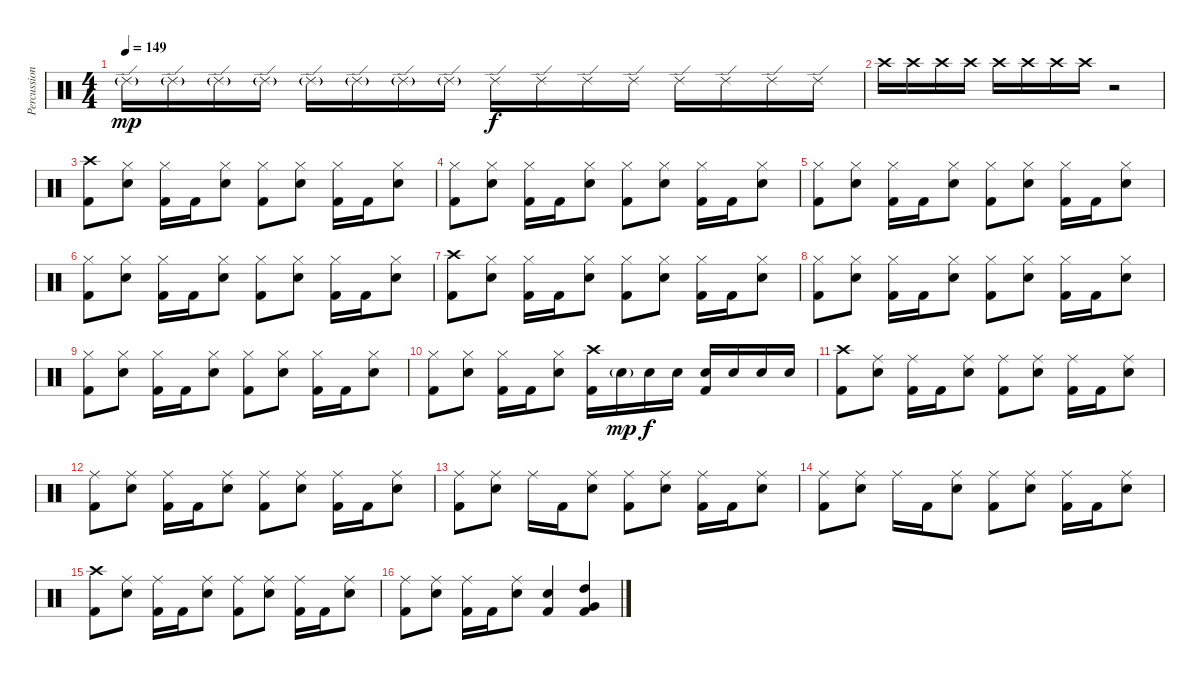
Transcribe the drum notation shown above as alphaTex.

\track ("Percussion" "Percussion") {instrument percussion}
\staff {score}
\articulation defaults
\ts (4 4)
\tempo 149
\clef neutral
\ks c "Ride (edge) 2"{g}.16{dy mp} "Ride (edge) 2"{g}.16 "Ride (edge) 2"{g}.16 "Ride (edge) 2"{g}.16 "Ride (edge) 2"{g}.16 "Ride (edge) 2"{g}.16 "Ride (edge) 2"{g}.16 "Ride (edge) 2"{g}.16 "Ride (edge) 2".16{dy f} "Ride (edge) 2".16 "Ride (edge) 2".16 "Ride (edge) 2".16 "Ride (edge) 2".16 "Ride (edge) 2".16 "Ride (edge) 2".16 "Ride (edge) 2".16
|
"Crash high (hit)".16 "Crash high (hit)".16 "Crash high (hit)".16 "Crash high (hit)".16 "Crash high (hit)".16 "Crash high (hit)".16 "Crash high (hit)".16 "Crash high (hit)".16 r.2 |
("Crash high (hit)" "Kick (hit) 2").8 ("Hi-Hat (closed)" "Snare (hit) 2").8 ("Hi-Hat (closed)" "Kick (hit) 2").16 "Kick (hit) 2".16 ("Hi-Hat (closed)" "Snare (hit) 2").8 ("Hi-Hat (closed)" "Kick (hit) 2").8 ("Hi-Hat (closed)" "Snare (hit) 2").8 ("Hi-Hat (closed)" "Kick (hit) 2").16 "Kick (hit) 2".16 ("Hi-Hat (closed)" "Snare (hit) 2").8 |
("Hi-Hat (closed)" "Kick (hit) 2").8 ("Hi-Hat (closed)" "Snare (hit) 2").8 ("Hi-Hat (closed)" "Kick (hit) 2").16 "Kick (hit) 2".16 ("Hi-Hat (closed)" "Snare (hit) 2").8 ("Hi-Hat (closed)" "Kick (hit) 2").8 ("Hi-Hat (closed)" "Snare (hit) 2").8 ("Hi-Hat (closed)" "Kick (hit) 2").16 "Kick (hit) 2".16 ("Hi-Hat (closed)" "Snare (hit) 2").8 |
("Hi-Hat (closed)" "Kick (hit) 2").8 ("Hi-Hat (closed)" "Snare (hit) 2").8 ("Hi-Hat (closed)" "Kick (hit) 2").16 "Kick (hit) 2".16 ("Hi-Hat (closed)" "Snare (hit) 2").8 ("Hi-Hat (closed)" "Kick (hit) 2").8 ("Hi-Hat (closed)" "Snare (hit) 2").8 ("Hi-Hat (closed)" "Kick (hit) 2").16 "Kick (hit) 2".16 ("Hi-Hat (closed)" "Snare (hit) 2").8 |
("Hi-Hat (closed)" "Kick (hit) 2").8 ("Hi-Hat (closed)" "Snare (hit) 2").8 ("Hi-Hat (closed)" "Kick (hit) 2").16 "Kick (hit) 2".16 ("Hi-Hat (closed)" "Snare (hit) 2").8 ("Hi-Hat (closed)" "Kick (hit) 2").8 ("Hi-Hat (closed)" "Snare (hit) 2").8 ("Hi-Hat (closed)" "Kick (hit) 2").16 "Kick (hit) 2".16 ("Hi-Hat (closed)" "Snare (hit) 2").8 |
("Crash high (hit)" "Kick (hit) 2").8 ("Hi-Hat (closed)" "Snare (hit) 2").8 ("Hi-Hat (closed)" "Kick (hit) 2").16 "Kick (hit) 2".16 ("Hi-Hat (closed)" "Snare (hit) 2").8 ("Hi-Hat (closed)" "Kick (hit) 2").8 ("Hi-Hat (closed)" "Snare (hit) 2").8 ("Hi-Hat (closed)" "Kick (hit) 2").16 "Kick (hit) 2".16 ("Hi-Hat (closed)" "Snare (hit) 2").8 |
("Hi-Hat (closed)" "Kick (hit) 2").8 ("Hi-Hat (closed)" "Snare (hit) 2").8 ("Hi-Hat (closed)" "Kick (hit) 2").16 "Kick (hit) 2".16 ("Hi-Hat (closed)" "Snare (hit) 2").8 ("Hi-Hat (closed)" "Kick (hit) 2").8 ("Hi-Hat (closed)" "Snare (hit) 2").8 ("Hi-Hat (closed)" "Kick (hit) 2").16 "Kick (hit) 2".16 ("Hi-Hat (closed)" "Snare (hit) 2").8 |
("Hi-Hat (closed)" "Kick (hit) 2").8 ("Hi-Hat (closed)" "Snare (hit) 2").8 ("Hi-Hat (closed)" "Kick (hit) 2").16 "Kick (hit) 2".16 ("Hi-Hat (closed)" "Snare (hit) 2").8 ("Hi-Hat (closed)" "Kick (hit) 2").8 ("Hi-Hat (closed)" "Snare (hit) 2").8 ("Hi-Hat (closed)" "Kick (hit) 2").16 "Kick (hit) 2".16 ("Hi-Hat (closed)" "Snare (hit) 2").8 |
("Hi-Hat (closed)" "Kick (hit) 2").8 ("Hi-Hat (closed)" "Snare (hit) 2").8 ("Hi-Hat (closed)" "Kick (hit) 2").16 "Kick (hit) 2".16 ("Hi-Hat (closed)" "Snare (hit) 2").8 ("Crash high (hit)" "Kick (hit) 2").16 "Snare (hit) 2"{g}.16{dy mp} "Snare (hit) 2".16{dy f} "Snare (hit) 2".16 ("Snare (hit) 2" "Kick (hit) 2").16 "Snare (hit) 2".16 "Snare (hit) 2".16 "Snare (hit) 2".16 |
("Crash high (hit)" "Kick (hit) 2").8 ("Ride (middle)" "Snare (hit) 2").8 ("Ride (middle)" "Kick (hit) 2").16 "Kick (hit) 2".16 ("Ride (middle)" "Snare (hit) 2").8 ("Ride (middle)" "Kick (hit) 2").8 ("Ride (middle)" "Snare (hit) 2").8 ("Ride (middle)" "Kick (hit) 2").16 "Kick (hit) 2".16 ("Ride (middle)" "Snare (hit) 2").8 |
("Ride (middle)" "Kick (hit) 2").8 ("Ride (middle)" "Snare (hit) 2").8 ("Ride (middle)" "Kick (hit) 2").16 "Kick (hit) 2".16 ("Ride (middle)" "Snare (hit) 2").8 ("Ride (middle)" "Kick (hit) 2").8 ("Ride (middle)" "Snare (hit) 2").8 ("Ride (middle)" "Kick (hit) 2").16 "Kick (hit) 2".16 ("Ride (middle)" "Snare (hit) 2").8 |
("Ride (middle)" "Kick (hit) 2").8 ("Ride (middle)" "Snare (hit) 2").8 "Ride (middle)".16 "Kick (hit) 2".16 ("Ride (middle)" "Snare (hit) 2").8 ("Ride (middle)" "Kick (hit) 2").8 ("Ride (middle)" "Snare (hit) 2").8 ("Ride (middle)" "Kick (hit) 2").16 "Kick (hit) 2".16 ("Ride (middle)" "Snare (hit) 2").8 |
("Ride (middle)" "Kick (hit) 2").8 ("Ride (middle)" "Snare (hit) 2").8 "Ride (middle)".16 "Kick (hit) 2".16 ("Ride (middle)" "Snare (hit) 2").8 ("Ride (middle)" "Kick (hit) 2").8 ("Ride (middle)" "Snare (hit) 2").8 ("Ride (middle)" "Kick (hit) 2").16 "Kick (hit) 2".16 ("Ride (middle)" "Snare (hit) 2").8 |
("Crash high (hit)" "Kick (hit) 2").8 ("Ride (middle)" "Snare (hit) 2").8 ("Ride (middle)" "Kick (hit) 2").16 "Kick (hit) 2".16 ("Ride (middle)" "Snare (hit) 2").8 ("Ride (middle)" "Kick (hit) 2").8 ("Ride (middle)" "Snare (hit) 2").8 ("Ride (middle)" "Kick (hit) 2").16 "Kick (hit) 2".16 ("Ride (middle)" "Snare (hit) 2").8 |
("Ride (middle)" "Kick (hit) 2").8 ("Ride (middle)" "Snare (hit) 2").8 ("Ride (middle)" "Kick (hit) 2").16 "Kick (hit) 2".16 ("Ride (middle)" "Snare (hit) 2").8 ("Snare (hit) 2" "Kick (hit) 2").4 ("High Tom (hit)" "Very Low Tom (hit)" "Kick (hit) 2").4
